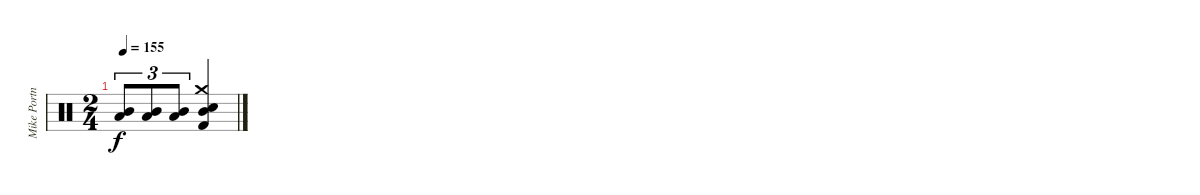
\track ("Mike Portnoy" "Mike Portn") {instrument percussion}
\staff {score}
\articulation defaults
\ts (2 4)
\tempo 155
\clef neutral
\ks c
("Mid Tom (hit)" "Low Tom (hit)").8{tu (3 2) dy f} ("Mid Tom (hit)" "Low Tom (hit)").8{tu (3 2)} ("Mid Tom (hit)" "Low Tom (hit)").8{tu (3 2)} ("Crash medium (hit)" "Mid Tom (hit)" "Electric Snare (hit)" "Kick (hit) 2").4
